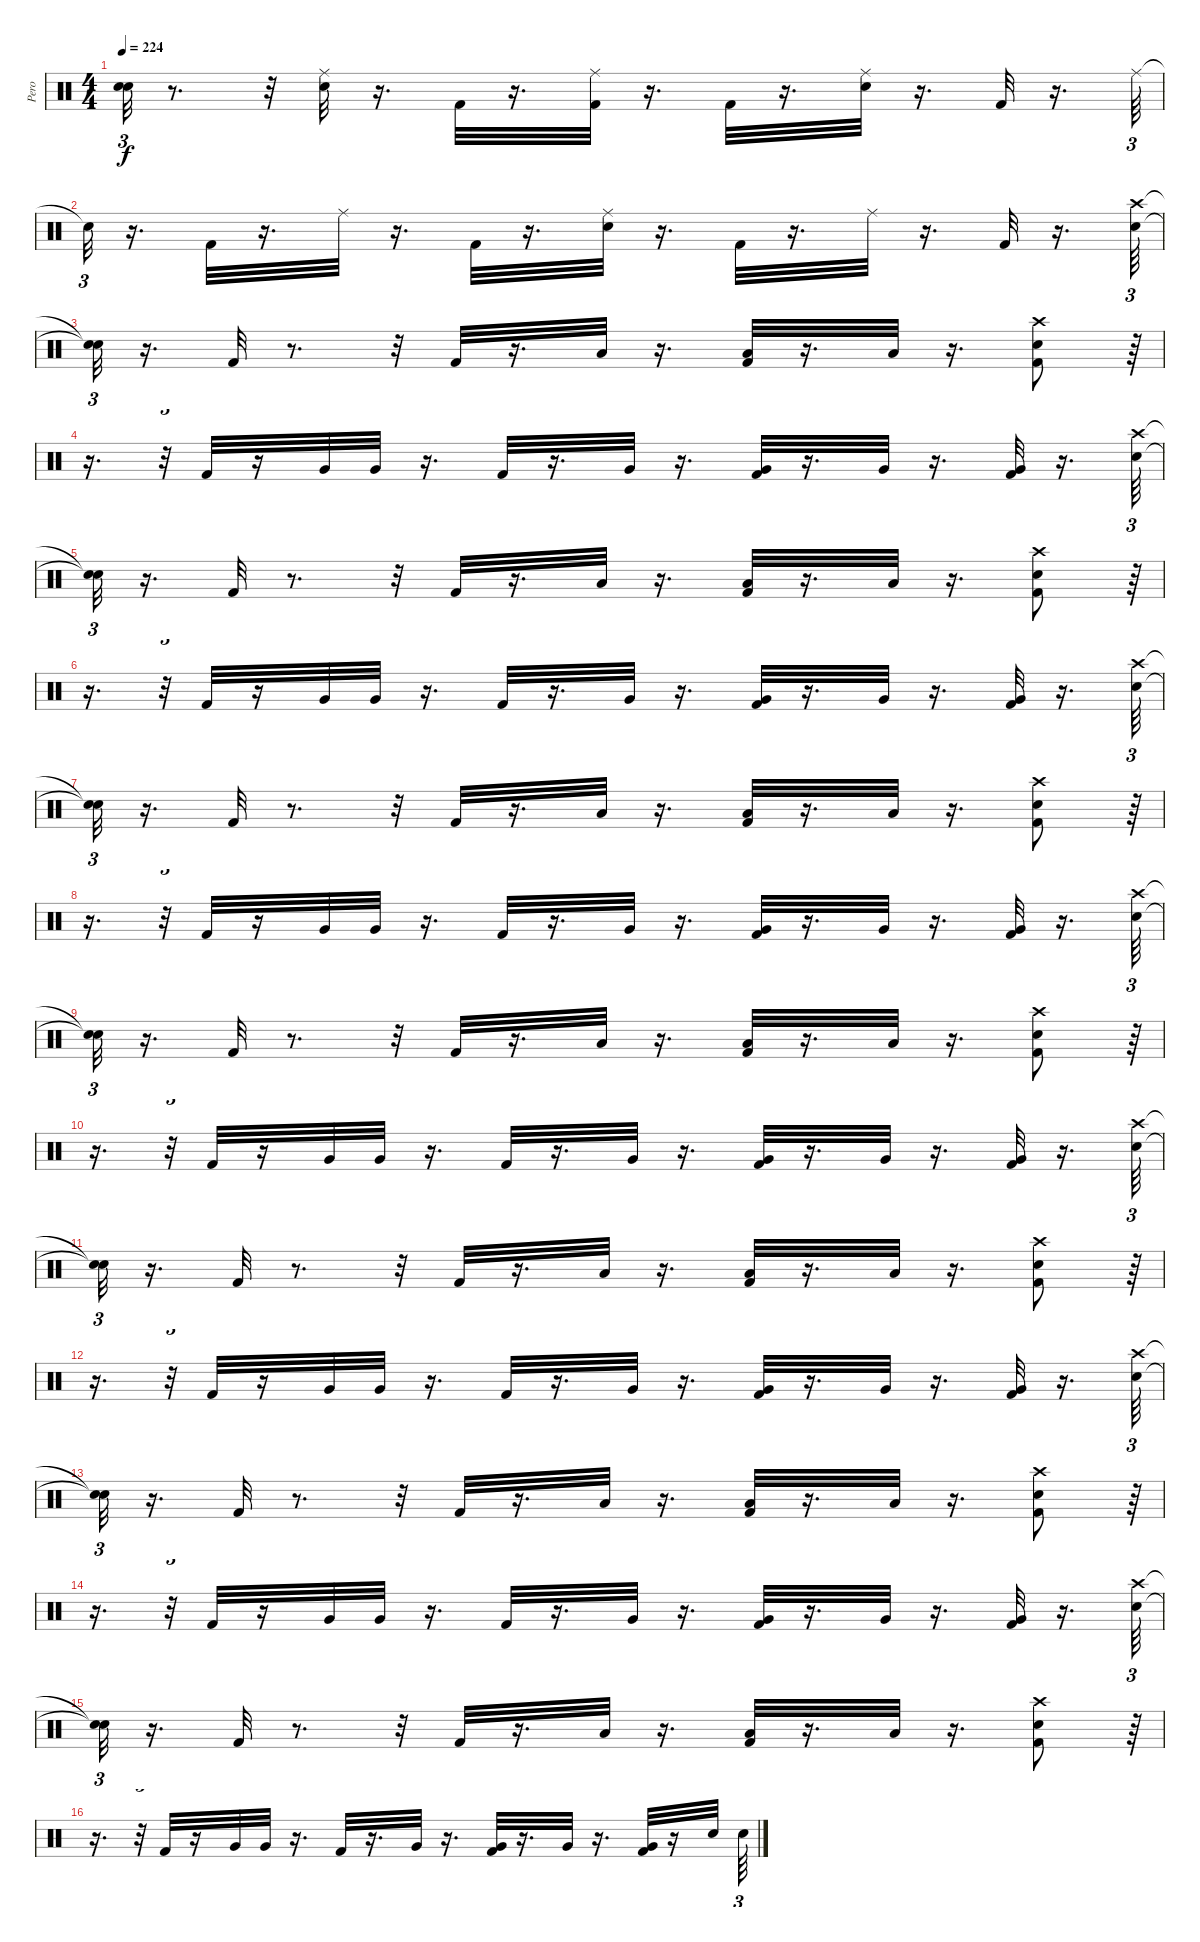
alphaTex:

\track ("Pero" "Pero") {instrument percussion}
\staff {score}
\articulation defaults
\ts (4 4)
\tempo 224
\clef neutral
\ks c
("Snare (hit)"{t} "Snare (hit)"{t}).32{tu (3 2) dy f} r.8{d} r.32 ("Ride (middle)" "Snare (hit) 2").32 r.16{d} "Kick (hit) 2".32 r.16{d} ("Ride (middle)" "Kick (hit) 2").32 r.16{d} "Kick (hit) 2".32 r.16{d} ("Ride (middle)" "Snare (hit) 2").32 r.16{d} "Kick (hit) 2".32 r.16{d} "Ride (middle)".64{tu (3 2)} |
"Snare (hit)"{t}.32{tu (3 2)} r.16{d} "Kick (hit) 2".32 r.16{d} "Ride (middle)".32 r.16{d} "Kick (hit) 2".32 r.16{d} ("Ride (middle)" "Snare (hit) 2").32 r.16{d} "Kick (hit) 2".32 r.16{d} "Ride (middle)".32 r.16{d} "Kick (hit) 2".32 r.16{d} ("Snare (hit) 2" "Crash high (hit)").64{tu (3 2)} |
("Snare (hit)"{t} "Snare (hit)"{t}).32{tu (3 2)} r.16{d} "Kick (hit) 2".32 r.8{d} r.32 "Kick (hit) 2".32 r.16{d} "Low Tom (hit)".32 r.16{d} ("Kick (hit) 2" "Low Tom (hit)").32 r.16{d} "Low Tom (hit)".32 r.16{d} ("Kick (hit) 2" "Snare (hit) 2" "Crash high (hit)").8 r.64{tu (3 2)} |
r.16{d} r.32{tu (3 2)} "Kick (hit) 2".32 r.16 "Very Low Tom (hit)".32 "Very Low Tom (hit)".32 r.16{d} "Kick (hit) 2".32 r.16{d} "Very Low Tom (hit)".32 r.16{d} ("Kick (hit) 2" "Very Low Tom (hit)").32 r.16{d} "Very Low Tom (hit)".32 r.16{d} ("Kick (hit) 2" "Very Low Tom (hit)").32 r.16{d} ("Snare (hit) 2" "Crash high (hit)").64{tu (3 2)} |
("Snare (hit)"{t} "Snare (hit)"{t}).32{tu (3 2)} r.16{d} "Kick (hit) 2".32 r.8{d} r.32 "Kick (hit) 2".32 r.16{d} "Low Tom (hit)".32 r.16{d} ("Kick (hit) 2" "Low Tom (hit)").32 r.16{d} "Low Tom (hit)".32 r.16{d} ("Kick (hit) 2" "Snare (hit) 2" "Crash high (hit)").8 r.64{tu (3 2)} |
r.16{d} r.32{tu (3 2)} "Kick (hit) 2".32 r.16 "Very Low Tom (hit)".32 "Very Low Tom (hit)".32 r.16{d} "Kick (hit) 2".32 r.16{d} "Very Low Tom (hit)".32 r.16{d} ("Kick (hit) 2" "Very Low Tom (hit)").32 r.16{d} "Very Low Tom (hit)".32 r.16{d} ("Kick (hit) 2" "Very Low Tom (hit)").32 r.16{d} ("Snare (hit) 2" "Crash high (hit)").64{tu (3 2)} |
("Snare (hit)"{t} "Snare (hit)"{t}).32{tu (3 2)} r.16{d} "Kick (hit) 2".32 r.8{d} r.32 "Kick (hit) 2".32 r.16{d} "Low Tom (hit)".32 r.16{d} ("Kick (hit) 2" "Low Tom (hit)").32 r.16{d} "Low Tom (hit)".32 r.16{d} ("Kick (hit) 2" "Snare (hit) 2" "Crash high (hit)").8 r.64{tu (3 2)} |
r.16{d} r.32{tu (3 2)} "Kick (hit) 2".32 r.16 "Very Low Tom (hit)".32 "Very Low Tom (hit)".32 r.16{d} "Kick (hit) 2".32 r.16{d} "Very Low Tom (hit)".32 r.16{d} ("Kick (hit) 2" "Very Low Tom (hit)").32 r.16{d} "Very Low Tom (hit)".32 r.16{d} ("Kick (hit) 2" "Very Low Tom (hit)").32 r.16{d} ("Snare (hit) 2" "Crash high (hit)").64{tu (3 2)} |
("Snare (hit)"{t} "Snare (hit)"{t}).32{tu (3 2)} r.16{d} "Kick (hit) 2".32 r.8{d} r.32 "Kick (hit) 2".32 r.16{d} "Low Tom (hit)".32 r.16{d} ("Kick (hit) 2" "Low Tom (hit)").32 r.16{d} "Low Tom (hit)".32 r.16{d} ("Kick (hit) 2" "Snare (hit) 2" "Crash high (hit)").8 r.64{tu (3 2)} |
r.16{d} r.32{tu (3 2)} "Kick (hit) 2".32 r.16 "Very Low Tom (hit)".32 "Very Low Tom (hit)".32 r.16{d} "Kick (hit) 2".32 r.16{d} "Very Low Tom (hit)".32 r.16{d} ("Kick (hit) 2" "Very Low Tom (hit)").32 r.16{d} "Very Low Tom (hit)".32 r.16{d} ("Kick (hit) 2" "Very Low Tom (hit)").32 r.16{d} ("Snare (hit) 2" "Crash high (hit)").64{tu (3 2)} |
("Snare (hit)"{t} "Snare (hit)"{t}).32{tu (3 2)} r.16{d} "Kick (hit) 2".32 r.8{d} r.32 "Kick (hit) 2".32 r.16{d} "Low Tom (hit)".32 r.16{d} ("Kick (hit) 2" "Low Tom (hit)").32 r.16{d} "Low Tom (hit)".32 r.16{d} ("Kick (hit) 2" "Snare (hit) 2" "Crash high (hit)").8 r.64{tu (3 2)} |
r.16{d} r.32{tu (3 2)} "Kick (hit) 2".32 r.16 "Very Low Tom (hit)".32 "Very Low Tom (hit)".32 r.16{d} "Kick (hit) 2".32 r.16{d} "Very Low Tom (hit)".32 r.16{d} ("Kick (hit) 2" "Very Low Tom (hit)").32 r.16{d} "Very Low Tom (hit)".32 r.16{d} ("Kick (hit) 2" "Very Low Tom (hit)").32 r.16{d} ("Snare (hit) 2" "Crash high (hit)").64{tu (3 2)} |
("Snare (hit)"{t} "Snare (hit)"{t}).32{tu (3 2)} r.16{d} "Kick (hit) 2".32 r.8{d} r.32 "Kick (hit) 2".32 r.16{d} "Low Tom (hit)".32 r.16{d} ("Kick (hit) 2" "Low Tom (hit)").32 r.16{d} "Low Tom (hit)".32 r.16{d} ("Kick (hit) 2" "Snare (hit) 2" "Crash high (hit)").8 r.64{tu (3 2)} |
r.16{d} r.32{tu (3 2)} "Kick (hit) 2".32 r.16 "Very Low Tom (hit)".32 "Very Low Tom (hit)".32 r.16{d} "Kick (hit) 2".32 r.16{d} "Very Low Tom (hit)".32 r.16{d} ("Kick (hit) 2" "Very Low Tom (hit)").32 r.16{d} "Very Low Tom (hit)".32 r.16{d} ("Kick (hit) 2" "Very Low Tom (hit)").32 r.16{d} ("Snare (hit) 2" "Crash high (hit)").64{tu (3 2)} |
("Snare (hit)"{t} "Snare (hit)"{t}).32{tu (3 2)} r.16{d} "Kick (hit) 2".32 r.8{d} r.32 "Kick (hit) 2".32 r.16{d} "Low Tom (hit)".32 r.16{d} ("Kick (hit) 2" "Low Tom (hit)").32 r.16{d} "Low Tom (hit)".32 r.16{d} ("Kick (hit) 2" "Snare (hit) 2" "Crash high (hit)").8 r.64{tu (3 2)} |
r.16{d} r.32{tu (3 2)} "Kick (hit) 2".32 r.16 "Very Low Tom (hit)".32 "Very Low Tom (hit)".32 r.16{d} "Kick (hit) 2".32 r.16{d} "Very Low Tom (hit)".32 r.16{d} ("Kick (hit) 2" "Very Low Tom (hit)").32 r.16{d} "Very Low Tom (hit)".32 r.16{d} ("Kick (hit) 2" "Very Low Tom (hit)").32 r.16 "Snare (hit) 2".32 "Snare (hit) 2".64{tu (3 2)}
